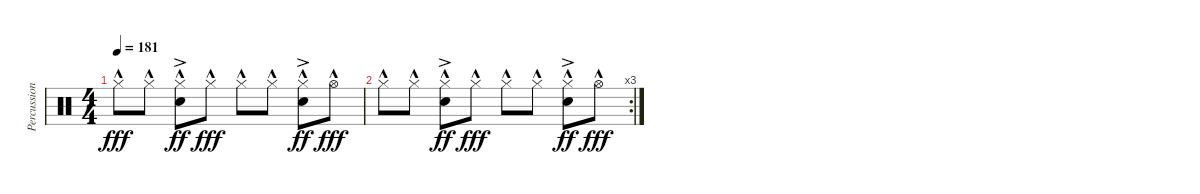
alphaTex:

\track ("Percussion" "Percussion") {instrument percussion}
\staff {score}
\articulation defaults
\ts (4 4)
\tempo 181
\clef neutral
\ks c "Hi-Hat (closed)"{hac}.8{dy fff} "Hi-Hat (closed)"{hac}.8
("Hi-Hat (closed)"{hac} "Snare (hit) 2"{ac}).8{dy ff} "Hi-Hat (closed)"{hac}.8{dy fff} "Hi-Hat (closed)"{hac}.8 "Hi-Hat (closed)"{hac}.8 ("Hi-Hat (closed)"{hac} "Snare (hit) 2"{ac}).8{dy ff} "Hi-Hat (open)"{hac}.8{dy fff} |
\rc 3 "Hi-Hat (closed)"{hac}.8 "Hi-Hat (closed)"{hac}.8
("Hi-Hat (closed)"{hac} "Snare (hit) 2"{ac}).8{dy ff} "Hi-Hat (closed)"{hac}.8{dy fff} "Hi-Hat (closed)"{hac}.8 "Hi-Hat (closed)"{hac}.8 ("Hi-Hat (closed)"{hac} "Snare (hit) 2"{ac}).8{dy ff} "Hi-Hat (open)"{hac}.8{dy fff}
